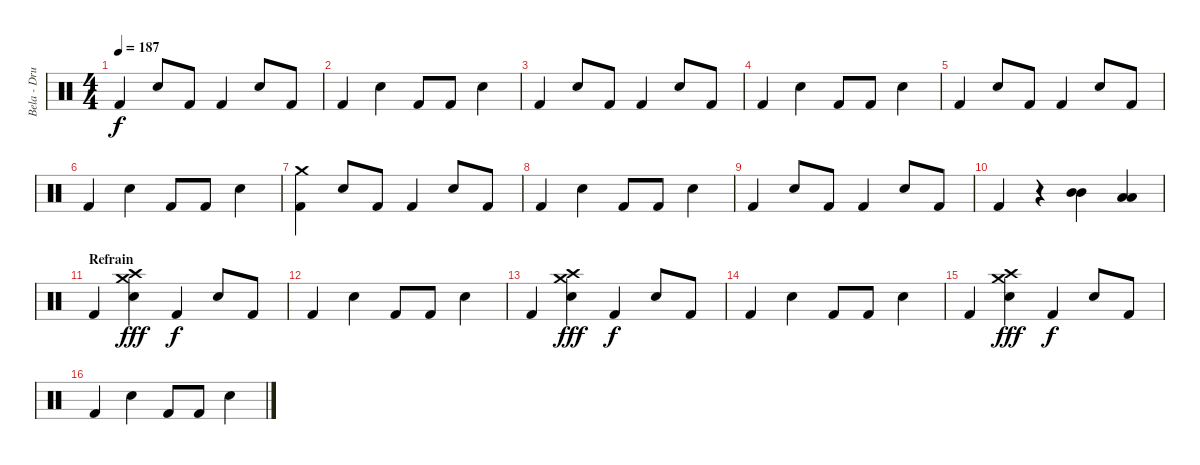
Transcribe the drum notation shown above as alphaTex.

\track ("Bela - Drums" "Bela - Dru") {instrument percussion}
\staff {score}
\articulation defaults
\ts (4 4)
\tempo 187
\clef neutral
\ks c "Kick (hit) 2".4{dy f} "Snare (hit) 2".8 "Kick (hit) 2".8 "Kick (hit) 2".4 "Snare (hit) 2".8 "Kick (hit) 2".8
|
"Kick (hit) 2".4 "Snare (hit) 2".4 "Kick (hit) 2".8 "Kick (hit) 2".8 "Snare (hit) 2".4 |
"Kick (hit) 2".4 "Snare (hit) 2".8 "Kick (hit) 2".8 "Kick (hit) 2".4 "Snare (hit) 2".8 "Kick (hit) 2".8 |
"Kick (hit) 2".4 "Snare (hit) 2".4 "Kick (hit) 2".8 "Kick (hit) 2".8 "Snare (hit) 2".4 |
"Kick (hit) 2".4 "Snare (hit) 2".8 "Kick (hit) 2".8 "Kick (hit) 2".4 "Snare (hit) 2".8 "Kick (hit) 2".8 |
"Kick (hit) 2".4 "Snare (hit) 2".4 "Kick (hit) 2".8 "Kick (hit) 2".8 "Snare (hit) 2".4 |
("Crash medium (hit)" "Kick (hit) 2").4 "Snare (hit) 2".8 "Kick (hit) 2".8 "Kick (hit) 2".4 "Snare (hit) 2".8 "Kick (hit) 2".8 |
"Kick (hit) 2".4 "Snare (hit) 2".4 "Kick (hit) 2".8 "Kick (hit) 2".8 "Snare (hit) 2".4 |
"Kick (hit) 2".4 "Snare (hit) 2".8 "Kick (hit) 2".8 "Kick (hit) 2".4 "Snare (hit) 2".8 "Kick (hit) 2".8 |
"Kick (hit) 2".4 r.4 ("Mid Tom (hit)" "Mid Tom (hit)").4 ("Low Tom (hit)" "Low Tom (hit)").4 |
\section ("" "Refrain")
"Kick (hit) 2".4 ("Crash medium (hit)" "Crash high (hit)" "Snare (hit) 2").4{dy fff} "Kick (hit) 2".4{dy f} "Snare (hit) 2".8 "Kick (hit) 2".8 |
"Kick (hit) 2".4 "Snare (hit) 2".4 "Kick (hit) 2".8 "Kick (hit) 2".8 "Snare (hit) 2".4 |
"Kick (hit) 2".4 ("Crash medium (hit)" "Crash high (hit)" "Snare (hit) 2").4{dy fff} "Kick (hit) 2".4{dy f} "Snare (hit) 2".8 "Kick (hit) 2".8 |
"Kick (hit) 2".4 "Snare (hit) 2".4 "Kick (hit) 2".8 "Kick (hit) 2".8 "Snare (hit) 2".4 |
"Kick (hit) 2".4 ("Crash medium (hit)" "Crash high (hit)" "Snare (hit) 2").4{dy fff} "Kick (hit) 2".4{dy f} "Snare (hit) 2".8 "Kick (hit) 2".8 |
"Kick (hit) 2".4 "Snare (hit) 2".4 "Kick (hit) 2".8 "Kick (hit) 2".8 "Snare (hit) 2".4
